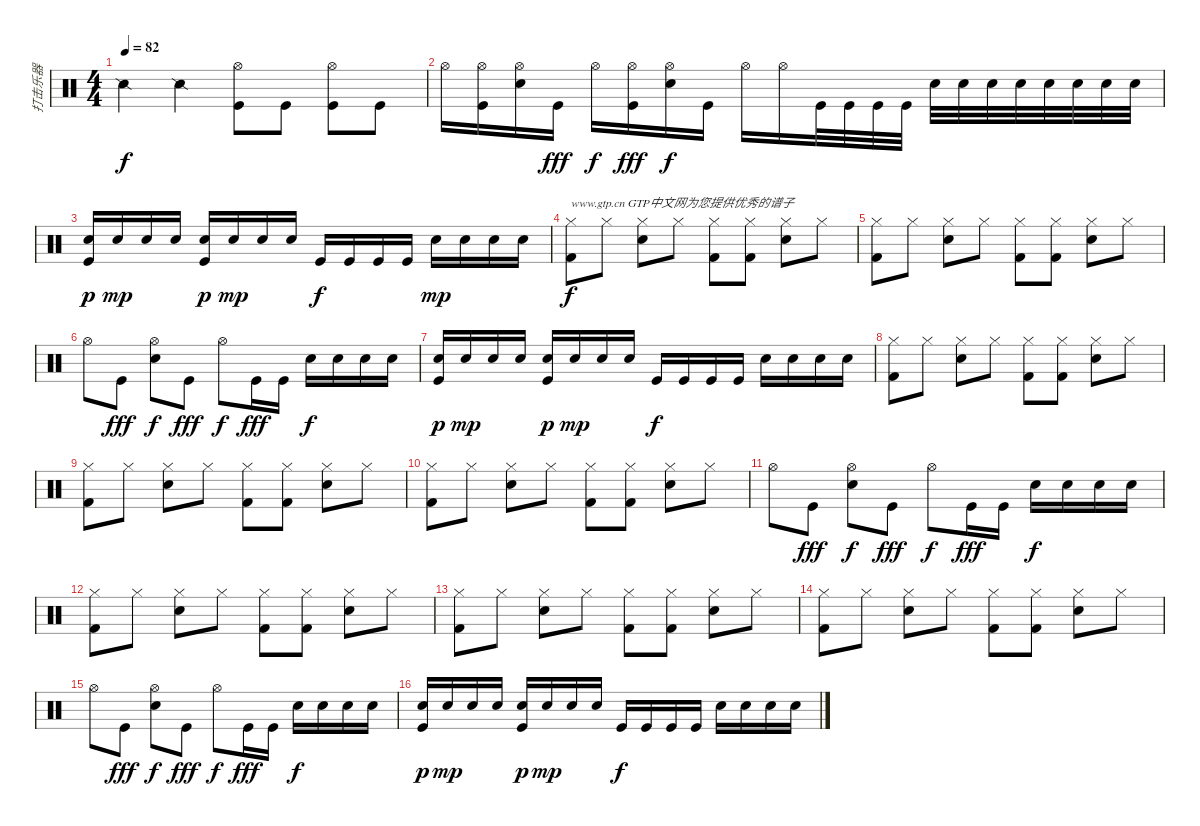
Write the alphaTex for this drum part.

\track ("打击乐器" "打击乐器") {instrument percussion}
\staff {score}
\articulation defaults
\ts (4 4)
\tempo 82
\clef neutral
\ks c "Snare (side stick) 2".4{dy f} "Snare (side stick) 2".4
("Hi-Hat (open)" "Kick (hit)").8 "Kick (hit)".8 ("Hi-Hat (open)" "Kick (hit)").8 "Kick (hit)".8 |
"Hi-Hat (open)".16 ("Hi-Hat (open)" "Kick (hit)").16 ("Electric Snare (hit)" "Hi-Hat (open)").16 "Kick (hit)".16{dy fff} "Hi-Hat (open)".16{dy f} ("Hi-Hat (open)" "Kick (hit)").16{dy fff} ("Electric Snare (hit)" "Hi-Hat (open)").16{dy f} "Kick (hit)".16 "Hi-Hat (open)".16 "Hi-Hat (open)".16 "Kick (hit)".32 "Kick (hit)".32 "Kick (hit)".32 "Kick (hit)".32 "Electric Snare (hit)".32 "Electric Snare (hit)".32 "Electric Snare (hit)".32 "Electric Snare (hit)".32 "Electric Snare (hit)".32 "Electric Snare (hit)".32 "Electric Snare (hit)".32 "Electric Snare (hit)".32 |
("Electric Snare (hit)" "Kick (hit)").16{dy p} "Electric Snare (hit)".16{dy mp} "Electric Snare (hit)".16 "Electric Snare (hit)".16 ("Electric Snare (hit)" "Kick (hit)").16{dy p} "Electric Snare (hit)".16{dy mp} "Electric Snare (hit)".16 "Electric Snare (hit)".16 "Kick (hit)".16{dy f} "Kick (hit)".16 "Kick (hit)".16 "Kick (hit)".16 "Electric Snare (hit)".16{dy mp} "Electric Snare (hit)".16 "Electric Snare (hit)".16 "Electric Snare (hit)".16 |
("Kick (hit) 2" "Hi-Hat (closed)").8{txt "www.gtp.cn GTP中文网为您提供优秀的谱子" dy f} "Hi-Hat (closed)".8 ("Snare (hit) 2" "Hi-Hat (closed)").8 "Hi-Hat (closed)".8 ("Kick (hit) 2" "Hi-Hat (closed)").8 ("Kick (hit) 2" "Hi-Hat (closed)").8 ("Snare (hit) 2" "Hi-Hat (closed)").8 "Hi-Hat (closed)".8 |
("Kick (hit) 2" "Hi-Hat (closed)").8 "Hi-Hat (closed)".8 ("Snare (hit) 2" "Hi-Hat (closed)").8 "Hi-Hat (closed)".8 ("Kick (hit) 2" "Hi-Hat (closed)").8 ("Kick (hit) 2" "Hi-Hat (closed)").8 ("Snare (hit) 2" "Hi-Hat (closed)").8 "Hi-Hat (closed)".8 |
"Hi-Hat (open)".8 "Kick (hit)".8{dy fff} ("Electric Snare (hit)" "Hi-Hat (open)").8{dy f} "Kick (hit)".8{dy fff} "Hi-Hat (open)".8{dy f} "Kick (hit)".16{dy fff} "Kick (hit)".16 "Electric Snare (hit)".16{dy f} "Electric Snare (hit)".16 "Electric Snare (hit)".16 "Electric Snare (hit)".16 |
("Electric Snare (hit)" "Kick (hit)").16{dy p} "Electric Snare (hit)".16{dy mp} "Electric Snare (hit)".16 "Electric Snare (hit)".16 ("Electric Snare (hit)" "Kick (hit)").16{dy p} "Electric Snare (hit)".16{dy mp} "Electric Snare (hit)".16 "Electric Snare (hit)".16 "Kick (hit)".16{dy f} "Kick (hit)".16 "Kick (hit)".16 "Kick (hit)".16 "Electric Snare (hit)".16 "Electric Snare (hit)".16 "Electric Snare (hit)".16 "Electric Snare (hit)".16 |
("Kick (hit) 2" "Hi-Hat (closed)").8 "Hi-Hat (closed)".8 ("Snare (hit) 2" "Hi-Hat (closed)").8 "Hi-Hat (closed)".8 ("Kick (hit) 2" "Hi-Hat (closed)").8 ("Kick (hit) 2" "Hi-Hat (closed)").8 ("Snare (hit) 2" "Hi-Hat (closed)").8 "Hi-Hat (closed)".8 |
("Kick (hit) 2" "Hi-Hat (closed)").8 "Hi-Hat (closed)".8 ("Snare (hit) 2" "Hi-Hat (closed)").8 "Hi-Hat (closed)".8 ("Kick (hit) 2" "Hi-Hat (closed)").8 ("Kick (hit) 2" "Hi-Hat (closed)").8 ("Snare (hit) 2" "Hi-Hat (closed)").8 "Hi-Hat (closed)".8 |
("Kick (hit) 2" "Hi-Hat (closed)").8 "Hi-Hat (closed)".8 ("Snare (hit) 2" "Hi-Hat (closed)").8 "Hi-Hat (closed)".8 ("Kick (hit) 2" "Hi-Hat (closed)").8 ("Kick (hit) 2" "Hi-Hat (closed)").8 ("Snare (hit) 2" "Hi-Hat (closed)").8 "Hi-Hat (closed)".8 |
"Hi-Hat (open)".8 "Kick (hit)".8{dy fff} ("Electric Snare (hit)" "Hi-Hat (open)").8{dy f} "Kick (hit)".8{dy fff} "Hi-Hat (open)".8{dy f} "Kick (hit)".16{dy fff} "Kick (hit)".16 "Electric Snare (hit)".16{dy f} "Electric Snare (hit)".16 "Electric Snare (hit)".16 "Electric Snare (hit)".16 |
("Kick (hit) 2" "Hi-Hat (closed)").8 "Hi-Hat (closed)".8 ("Snare (hit) 2" "Hi-Hat (closed)").8 "Hi-Hat (closed)".8 ("Kick (hit) 2" "Hi-Hat (closed)").8 ("Kick (hit) 2" "Hi-Hat (closed)").8 ("Snare (hit) 2" "Hi-Hat (closed)").8 "Hi-Hat (closed)".8 |
("Kick (hit) 2" "Hi-Hat (closed)").8 "Hi-Hat (closed)".8 ("Snare (hit) 2" "Hi-Hat (closed)").8 "Hi-Hat (closed)".8 ("Kick (hit) 2" "Hi-Hat (closed)").8 ("Kick (hit) 2" "Hi-Hat (closed)").8 ("Snare (hit) 2" "Hi-Hat (closed)").8 "Hi-Hat (closed)".8 |
("Kick (hit) 2" "Hi-Hat (closed)").8 "Hi-Hat (closed)".8 ("Snare (hit) 2" "Hi-Hat (closed)").8 "Hi-Hat (closed)".8 ("Kick (hit) 2" "Hi-Hat (closed)").8 ("Kick (hit) 2" "Hi-Hat (closed)").8 ("Snare (hit) 2" "Hi-Hat (closed)").8 "Hi-Hat (closed)".8 |
"Hi-Hat (open)".8 "Kick (hit)".8{dy fff} ("Electric Snare (hit)" "Hi-Hat (open)").8{dy f} "Kick (hit)".8{dy fff} "Hi-Hat (open)".8{dy f} "Kick (hit)".16{dy fff} "Kick (hit)".16 "Electric Snare (hit)".16{dy f} "Electric Snare (hit)".16 "Electric Snare (hit)".16 "Electric Snare (hit)".16 |
("Electric Snare (hit)" "Kick (hit)").16{dy p} "Electric Snare (hit)".16{dy mp} "Electric Snare (hit)".16 "Electric Snare (hit)".16 ("Electric Snare (hit)" "Kick (hit)").16{dy p} "Electric Snare (hit)".16{dy mp} "Electric Snare (hit)".16 "Electric Snare (hit)".16 "Kick (hit)".16{dy f} "Kick (hit)".16 "Kick (hit)".16 "Kick (hit)".16 "Electric Snare (hit)".16 "Electric Snare (hit)".16 "Electric Snare (hit)".16 "Electric Snare (hit)".16
